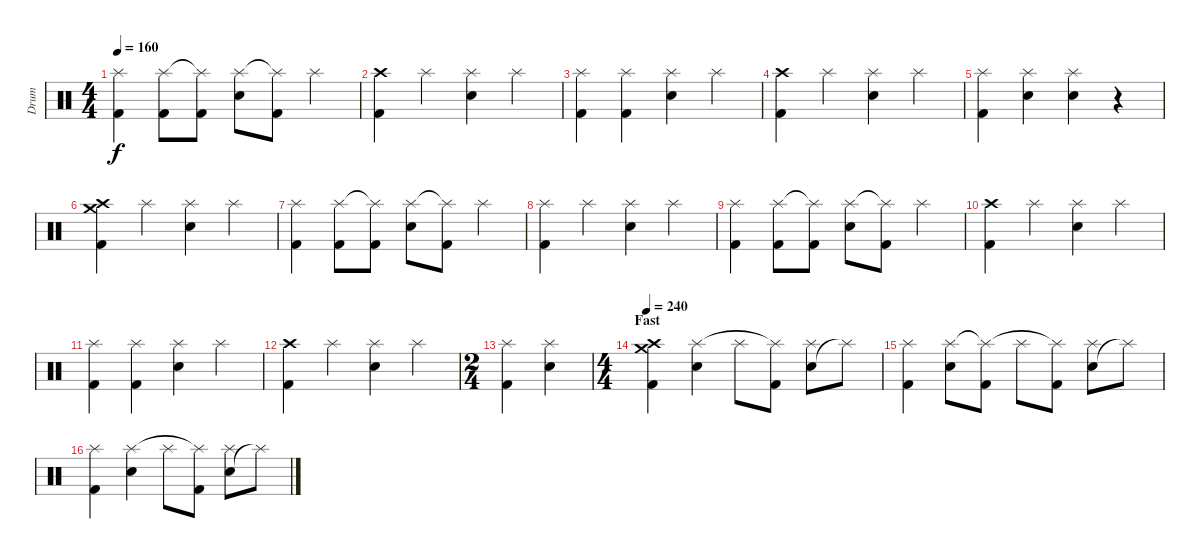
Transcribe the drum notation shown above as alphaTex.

\track ("Drum" "Drum") {instrument percussion}
\staff {score}
\articulation defaults
\ts (4 4)
\tempo 160
\clef neutral
\ks c
("Kick (hit) 2" "Splash (hit)").4{dy f} ("Kick (hit) 2" "Splash (hit)").8 ("Kick (hit) 2" "Splash (hit)"{t}).8 ("Electric Snare (hit)" "Splash (hit)").8 ("Kick (hit) 2" "Splash (hit)"{t}).8 "Splash (hit)".4 |
("Kick (hit) 2" "Crash high (hit)").4 "Splash (hit)".4 ("Electric Snare (hit)" "Splash (hit)").4 "Splash (hit)".4 |
("Kick (hit) 2" "Splash (hit)").4 ("Kick (hit) 2" "Splash (hit)").4 ("Electric Snare (hit)" "Splash (hit)").4 "Splash (hit)".4 |
("Kick (hit) 2" "Crash high (hit)").4 "Splash (hit)".4 ("Electric Snare (hit)" "Splash (hit)").4 "Splash (hit)".4 |
("Kick (hit) 2" "Splash (hit)").4 ("Electric Snare (hit)" "Splash (hit)").4 ("Electric Snare (hit)" "Splash (hit)").4 r.4 |
\section ("" "")
("Kick (hit) 2" "Crash high (hit)" "Crash medium (hit)").4 "Splash (hit)".4 ("Electric Snare (hit)" "Splash (hit)").4 "Splash (hit)".4 |
("Kick (hit) 2" "Splash (hit)").4 ("Kick (hit) 2" "Splash (hit)").8 ("Kick (hit) 2" "Splash (hit)"{t}).8 ("Electric Snare (hit)" "Splash (hit)").8 ("Kick (hit) 2" "Splash (hit)"{t}).8 "Splash (hit)".4 |
("Kick (hit) 2" "Splash (hit)").4 "Splash (hit)".4 ("Electric Snare (hit)" "Splash (hit)").4 "Splash (hit)".4 |
("Kick (hit) 2" "Splash (hit)").4 ("Kick (hit) 2" "Splash (hit)").8 ("Kick (hit) 2" "Splash (hit)"{t}).8 ("Electric Snare (hit)" "Splash (hit)").8 ("Kick (hit) 2" "Splash (hit)"{t}).8 "Splash (hit)".4 |
("Kick (hit) 2" "Crash high (hit)").4 "Splash (hit)".4 ("Electric Snare (hit)" "Splash (hit)").4 "Splash (hit)".4 |
("Kick (hit) 2" "Splash (hit)").4 ("Kick (hit) 2" "Splash (hit)").4 ("Electric Snare (hit)" "Splash (hit)").4 "Splash (hit)".4 |
("Kick (hit) 2" "Crash high (hit)").4 "Splash (hit)".4 ("Electric Snare (hit)" "Splash (hit)").4 "Splash (hit)".4 |
\ts (2 4)
("Kick (hit) 2" "Splash (hit)").4 ("Electric Snare (hit)" "Splash (hit)").4 |
\ts (4 4)
\section ("" "Fast")
\tempo 240
("Kick (hit) 2" "Crash high (hit)" "Crash medium (hit)").4 ("Electric Snare (hit)" "Splash (hit)").4 "Splash (hit)".8 ("Kick (hit) 2" "Splash (hit)"{t}).8 ("Electric Snare (hit)" "Splash (hit)").8 "Splash (hit)"{t}.8 |
("Kick (hit) 2" "Splash (hit)").4 ("Electric Snare (hit)" "Splash (hit)").8 ("Kick (hit) 2" "Splash (hit)"{t}).8 "Splash (hit)".8 ("Kick (hit) 2" "Splash (hit)"{t}).8 ("Electric Snare (hit)" "Splash (hit)").8 "Splash (hit)"{t}.8 |
("Kick (hit) 2" "Splash (hit)").4 ("Electric Snare (hit)" "Splash (hit)").4 "Splash (hit)".8 ("Kick (hit) 2" "Splash (hit)"{t}).8 ("Electric Snare (hit)" "Splash (hit)").8 "Splash (hit)"{t}.8
